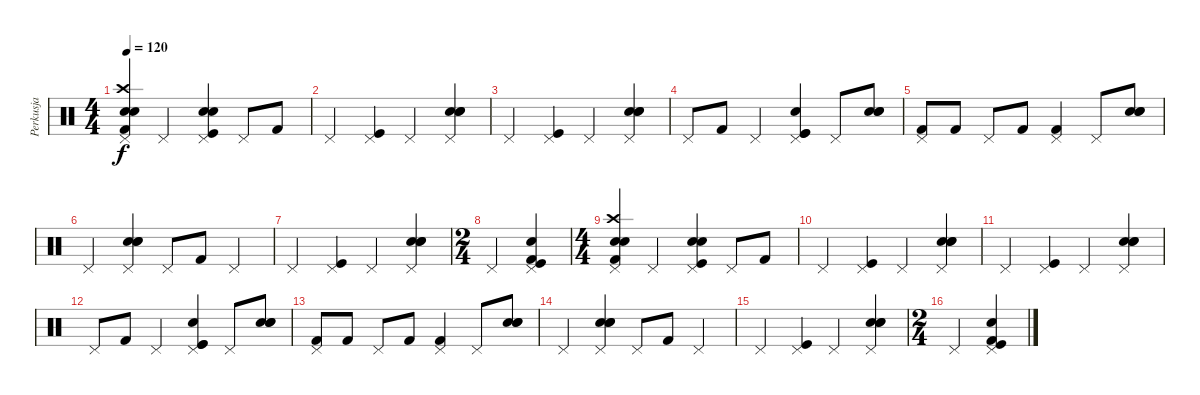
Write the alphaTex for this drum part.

\track ("Perkusja" "Perkusja") {instrument percussion}
\staff {score}
\articulation defaults
\ts (4 4)
\tempo 120
\clef neutral
\ks c
("Pedal Hi-Hat (hit)" "Crash high (hit)" "Snare (hit) 2" "Electric Snare (hit)" "Kick (hit) 2").4{dy f} "Pedal Hi-Hat (hit)".4 ("Pedal Hi-Hat (hit)" "Kick (hit)" "Electric Snare (hit)" "Snare (hit) 2").4 "Pedal Hi-Hat (hit)".8 "Kick (hit) 2".8 |
"Pedal Hi-Hat (hit)".4 ("Pedal Hi-Hat (hit)" "Kick (hit)").4 "Pedal Hi-Hat (hit)".4 ("Pedal Hi-Hat (hit)" "Snare (hit) 2" "Snare (hit) 2" "Electric Snare (hit)").4 |
"Pedal Hi-Hat (hit)".4 ("Pedal Hi-Hat (hit)" "Kick (hit)").4 "Pedal Hi-Hat (hit)".4 ("Pedal Hi-Hat (hit)" "Snare (hit) 2" "Snare (hit) 2" "Electric Snare (hit)").4 |
"Pedal Hi-Hat (hit)".8 "Kick (hit) 2".8 "Pedal Hi-Hat (hit)".4 ("Pedal Hi-Hat (hit)" "Electric Snare (hit)" "Kick (hit)" "Kick (hit)").4 "Pedal Hi-Hat (hit)".8 ("Snare (hit) 2" "Snare (hit) 2" "Electric Snare (hit)").8 |
("Pedal Hi-Hat (hit)" "Kick (hit) 2").8 "Kick (hit) 2".8 "Pedal Hi-Hat (hit)".8 "Kick (hit) 2".8 ("Pedal Hi-Hat (hit)" "Kick (hit) 2").4 "Pedal Hi-Hat (hit)".8 ("Snare (hit) 2" "Snare (hit) 2" "Electric Snare (hit)").8 |
"Pedal Hi-Hat (hit)".4 ("Pedal Hi-Hat (hit)" "Snare (hit) 2" "Snare (hit) 2" "Electric Snare (hit)").4 "Pedal Hi-Hat (hit)".8 "Kick (hit) 2".8 "Pedal Hi-Hat (hit)".4 |
"Pedal Hi-Hat (hit)".4 ("Pedal Hi-Hat (hit)" "Kick (hit)").4 "Pedal Hi-Hat (hit)".4 ("Pedal Hi-Hat (hit)" "Snare (hit) 2" "Snare (hit) 2" "Electric Snare (hit)").4 |
\ts (2 4)
"Pedal Hi-Hat (hit)".4 ("Pedal Hi-Hat (hit)" "Electric Snare (hit)" "Kick (hit)" "Kick (hit) 2").4 |
\ts (4 4)
("Pedal Hi-Hat (hit)" "Crash high (hit)" "Snare (hit) 2" "Electric Snare (hit)" "Kick (hit) 2").4 "Pedal Hi-Hat (hit)".4 ("Pedal Hi-Hat (hit)" "Kick (hit)" "Electric Snare (hit)" "Snare (hit) 2").4 "Pedal Hi-Hat (hit)".8 "Kick (hit) 2".8 |
"Pedal Hi-Hat (hit)".4 ("Pedal Hi-Hat (hit)" "Kick (hit)").4 "Pedal Hi-Hat (hit)".4 ("Pedal Hi-Hat (hit)" "Snare (hit) 2" "Snare (hit) 2" "Electric Snare (hit)").4 |
"Pedal Hi-Hat (hit)".4 ("Pedal Hi-Hat (hit)" "Kick (hit)").4 "Pedal Hi-Hat (hit)".4 ("Pedal Hi-Hat (hit)" "Snare (hit) 2" "Snare (hit) 2" "Electric Snare (hit)").4 |
"Pedal Hi-Hat (hit)".8 "Kick (hit) 2".8 "Pedal Hi-Hat (hit)".4 ("Pedal Hi-Hat (hit)" "Electric Snare (hit)" "Kick (hit)" "Kick (hit)").4 "Pedal Hi-Hat (hit)".8 ("Snare (hit) 2" "Snare (hit) 2" "Electric Snare (hit)").8 |
("Pedal Hi-Hat (hit)" "Kick (hit) 2").8 "Kick (hit) 2".8 "Pedal Hi-Hat (hit)".8 "Kick (hit) 2".8 ("Pedal Hi-Hat (hit)" "Kick (hit) 2").4 "Pedal Hi-Hat (hit)".8 ("Snare (hit) 2" "Snare (hit) 2" "Electric Snare (hit)").8 |
"Pedal Hi-Hat (hit)".4 ("Pedal Hi-Hat (hit)" "Snare (hit) 2" "Snare (hit) 2" "Electric Snare (hit)").4 "Pedal Hi-Hat (hit)".8 "Kick (hit) 2".8 "Pedal Hi-Hat (hit)".4 |
"Pedal Hi-Hat (hit)".4 ("Pedal Hi-Hat (hit)" "Kick (hit)").4 "Pedal Hi-Hat (hit)".4 ("Pedal Hi-Hat (hit)" "Snare (hit) 2" "Snare (hit) 2" "Electric Snare (hit)").4 |
\ts (2 4)
"Pedal Hi-Hat (hit)".4 ("Pedal Hi-Hat (hit)" "Electric Snare (hit)" "Kick (hit)" "Kick (hit) 2").4
